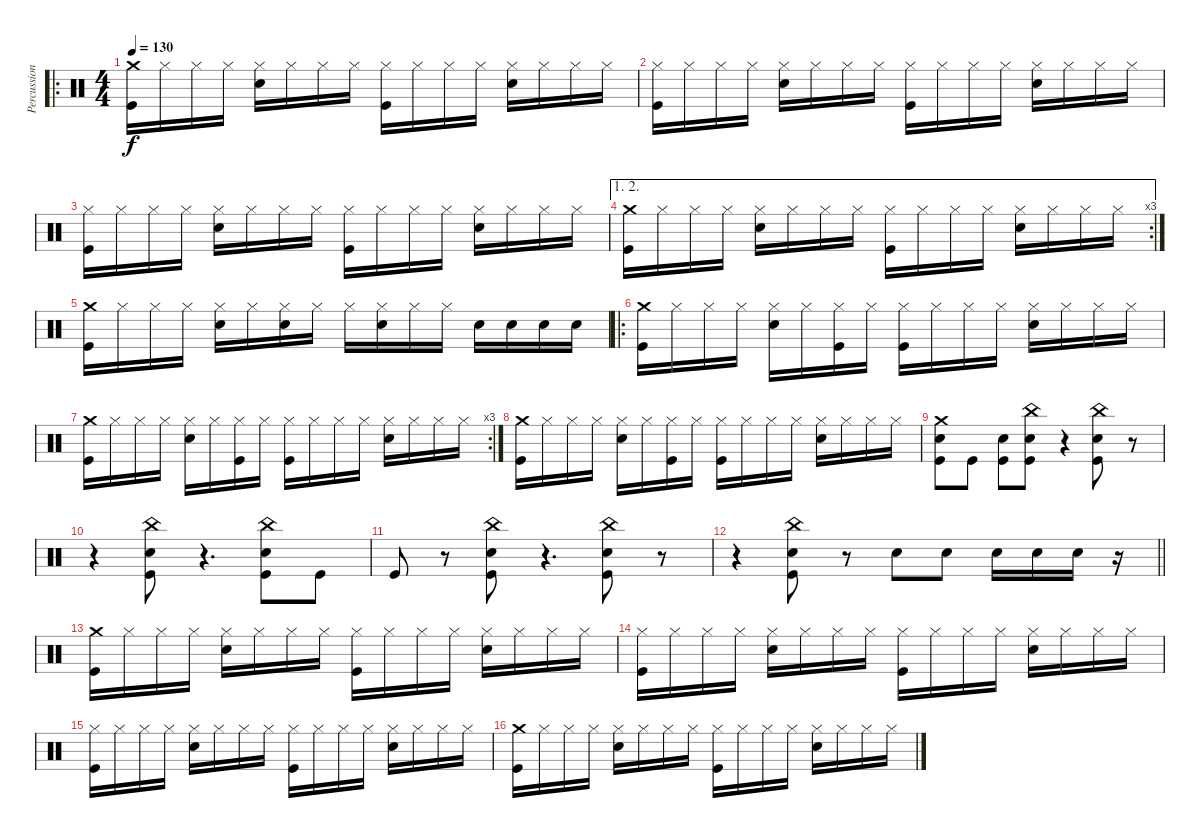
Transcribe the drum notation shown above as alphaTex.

\track ("Percussion" "Percussion") {instrument percussion}
\staff {score}
\articulation defaults
\ro
\ts (4 4)
\tempo 130
\clef neutral
\ks c
("Crash medium (hit)" "Kick (hit)").16{dy f} "Hi-Hat (closed)".16 "Hi-Hat (closed)".16 "Hi-Hat (closed)".16 ("Hi-Hat (closed)" "Snare (hit) 2").16 "Hi-Hat (closed)".16 "Hi-Hat (closed)".16 "Hi-Hat (closed)".16 ("Hi-Hat (closed)" "Kick (hit)").16 "Hi-Hat (closed)".16 "Hi-Hat (closed)".16 "Hi-Hat (closed)".16 ("Hi-Hat (closed)" "Snare (hit) 2").16 "Hi-Hat (closed)".16 "Hi-Hat (closed)".16 "Hi-Hat (closed)".16 |
("Hi-Hat (closed)" "Kick (hit)").16 "Hi-Hat (closed)".16 "Hi-Hat (closed)".16 "Hi-Hat (closed)".16 ("Hi-Hat (closed)" "Snare (hit) 2").16 "Hi-Hat (closed)".16 "Hi-Hat (closed)".16 "Hi-Hat (closed)".16 ("Hi-Hat (closed)" "Kick (hit)").16 "Hi-Hat (closed)".16 "Hi-Hat (closed)".16 "Hi-Hat (closed)".16 ("Hi-Hat (closed)" "Snare (hit) 2").16 "Hi-Hat (closed)".16 "Hi-Hat (closed)".16 "Hi-Hat (closed)".16 |
("Hi-Hat (closed)" "Kick (hit)").16 "Hi-Hat (closed)".16 "Hi-Hat (closed)".16 "Hi-Hat (closed)".16 ("Hi-Hat (closed)" "Snare (hit) 2").16 "Hi-Hat (closed)".16 "Hi-Hat (closed)".16 "Hi-Hat (closed)".16 ("Hi-Hat (closed)" "Kick (hit)").16 "Hi-Hat (closed)".16 "Hi-Hat (closed)".16 "Hi-Hat (closed)".16 ("Hi-Hat (closed)" "Snare (hit) 2").16 "Hi-Hat (closed)".16 "Hi-Hat (closed)".16 "Hi-Hat (closed)".16 |
\ae (1 2)
\rc 3
("Crash medium (hit)" "Kick (hit)").16 "Hi-Hat (closed)".16 "Hi-Hat (closed)".16 "Hi-Hat (closed)".16 ("Hi-Hat (closed)" "Snare (hit) 2").16 "Hi-Hat (closed)".16 "Hi-Hat (closed)".16 "Hi-Hat (closed)".16 ("Hi-Hat (closed)" "Kick (hit)").16 "Hi-Hat (closed)".16 "Hi-Hat (closed)".16 "Hi-Hat (closed)".16 ("Hi-Hat (closed)" "Snare (hit) 2").16 "Hi-Hat (closed)".16 "Hi-Hat (closed)".16 "Hi-Hat (closed)".16 |
("Crash medium (hit)" "Kick (hit)").16 "Hi-Hat (closed)".16 "Hi-Hat (closed)".16 "Hi-Hat (closed)".16 ("Hi-Hat (closed)" "Snare (hit) 2").16 "Hi-Hat (closed)".16 ("Hi-Hat (closed)" "Snare (hit) 2").16 "Hi-Hat (closed)".16 "Hi-Hat (closed)".16 ("Hi-Hat (closed)" "Snare (hit) 2").16 "Hi-Hat (closed)".16 "Hi-Hat (closed)".16 "Snare (hit) 2".16 "Snare (hit) 2".16 "Snare (hit) 2".16 "Snare (hit) 2".16 |
\ro
("Crash medium (hit)" "Kick (hit)").16 "Hi-Hat (closed)".16 "Hi-Hat (closed)".16 "Hi-Hat (closed)".16 ("Hi-Hat (closed)" "Snare (hit) 2").16 "Hi-Hat (closed)".16 ("Hi-Hat (closed)" "Kick (hit)").16 "Hi-Hat (closed)".16 ("Hi-Hat (closed)" "Kick (hit)").16 "Hi-Hat (closed)".16 "Hi-Hat (closed)".16 "Hi-Hat (closed)".16 ("Hi-Hat (closed)" "Snare (hit) 2").16 "Hi-Hat (closed)".16 "Hi-Hat (closed)".16 "Hi-Hat (closed)".16 |
\rc 3
("Crash medium (hit)" "Kick (hit)").16 "Hi-Hat (closed)".16 "Hi-Hat (closed)".16 "Hi-Hat (closed)".16 ("Hi-Hat (closed)" "Snare (hit) 2").16 "Hi-Hat (closed)".16 ("Hi-Hat (closed)" "Kick (hit)").16 "Hi-Hat (closed)".16 ("Hi-Hat (closed)" "Kick (hit)").16 "Hi-Hat (closed)".16 "Hi-Hat (closed)".16 "Hi-Hat (closed)".16 ("Hi-Hat (closed)" "Snare (hit) 2").16 "Hi-Hat (closed)".16 "Hi-Hat (closed)".16 "Hi-Hat (closed)".16 |
("Crash medium (hit)" "Kick (hit)").16 "Hi-Hat (closed)".16 "Hi-Hat (closed)".16 "Hi-Hat (closed)".16 ("Hi-Hat (closed)" "Snare (hit) 2").16 "Hi-Hat (closed)".16 ("Hi-Hat (closed)" "Kick (hit)").16 "Hi-Hat (closed)".16 ("Hi-Hat (closed)" "Kick (hit)").16 "Hi-Hat (closed)".16 "Hi-Hat (closed)".16 "Hi-Hat (closed)".16 ("Hi-Hat (closed)" "Snare (hit) 2").16 "Hi-Hat (closed)".16 "Hi-Hat (closed)".16 "Hi-Hat (closed)".16 |
("Crash medium (hit)" "Snare (hit) 2" "Kick (hit)").8 "Kick (hit)".8 ("Snare (hit) 2" "Kick (hit)").8 ("China (hit)" "Kick (hit)" "Snare (hit) 2").8 r.4 ("China (hit)" "Kick (hit)" "Snare (hit) 2").8 r.8 |
r.4 ("China (hit)" "Kick (hit)" "Snare (hit) 2").8 r.4{d} ("China (hit)" "Kick (hit)" "Snare (hit) 2").8 "Kick (hit)".8 |
"Kick (hit)".8 r.8 ("China (hit)" "Kick (hit)" "Snare (hit) 2").8 r.4{d} ("China (hit)" "Kick (hit)" "Snare (hit) 2").8 r.8 |
\barLineRight lightlight
r.4 ("China (hit)" "Kick (hit)" "Snare (hit) 2").8 r.8 "Snare (hit) 2".8 "Snare (hit) 2".8 "Snare (hit) 2".16 "Snare (hit) 2".16 "Snare (hit) 2".16 r.16 |
("Crash medium (hit)" "Kick (hit)").16 "Hi-Hat (closed)".16 "Hi-Hat (closed)".16 "Hi-Hat (closed)".16 ("Hi-Hat (closed)" "Snare (hit) 2").16 "Hi-Hat (closed)".16 "Hi-Hat (closed)".16 "Hi-Hat (closed)".16 ("Hi-Hat (closed)" "Kick (hit)").16 "Hi-Hat (closed)".16 "Hi-Hat (closed)".16 "Hi-Hat (closed)".16 ("Hi-Hat (closed)" "Snare (hit) 2").16 "Hi-Hat (closed)".16 "Hi-Hat (closed)".16 "Hi-Hat (closed)".16 |
("Hi-Hat (closed)" "Kick (hit)").16 "Hi-Hat (closed)".16 "Hi-Hat (closed)".16 "Hi-Hat (closed)".16 ("Hi-Hat (closed)" "Snare (hit) 2").16 "Hi-Hat (closed)".16 "Hi-Hat (closed)".16 "Hi-Hat (closed)".16 ("Hi-Hat (closed)" "Kick (hit)").16 "Hi-Hat (closed)".16 "Hi-Hat (closed)".16 "Hi-Hat (closed)".16 ("Hi-Hat (closed)" "Snare (hit) 2").16 "Hi-Hat (closed)".16 "Hi-Hat (closed)".16 "Hi-Hat (closed)".16 |
("Hi-Hat (closed)" "Kick (hit)").16 "Hi-Hat (closed)".16 "Hi-Hat (closed)".16 "Hi-Hat (closed)".16 ("Hi-Hat (closed)" "Snare (hit) 2").16 "Hi-Hat (closed)".16 "Hi-Hat (closed)".16 "Hi-Hat (closed)".16 ("Hi-Hat (closed)" "Kick (hit)").16 "Hi-Hat (closed)".16 "Hi-Hat (closed)".16 "Hi-Hat (closed)".16 ("Hi-Hat (closed)" "Snare (hit) 2").16 "Hi-Hat (closed)".16 "Hi-Hat (closed)".16 "Hi-Hat (closed)".16 |
("Crash medium (hit)" "Kick (hit)").16 "Hi-Hat (closed)".16 "Hi-Hat (closed)".16 "Hi-Hat (closed)".16 ("Hi-Hat (closed)" "Snare (hit) 2").16 "Hi-Hat (closed)".16 "Hi-Hat (closed)".16 "Hi-Hat (closed)".16 ("Hi-Hat (closed)" "Kick (hit)").16 "Hi-Hat (closed)".16 "Hi-Hat (closed)".16 "Hi-Hat (closed)".16 ("Hi-Hat (closed)" "Snare (hit) 2").16 "Hi-Hat (closed)".16 "Hi-Hat (closed)".16 "Hi-Hat (closed)".16
